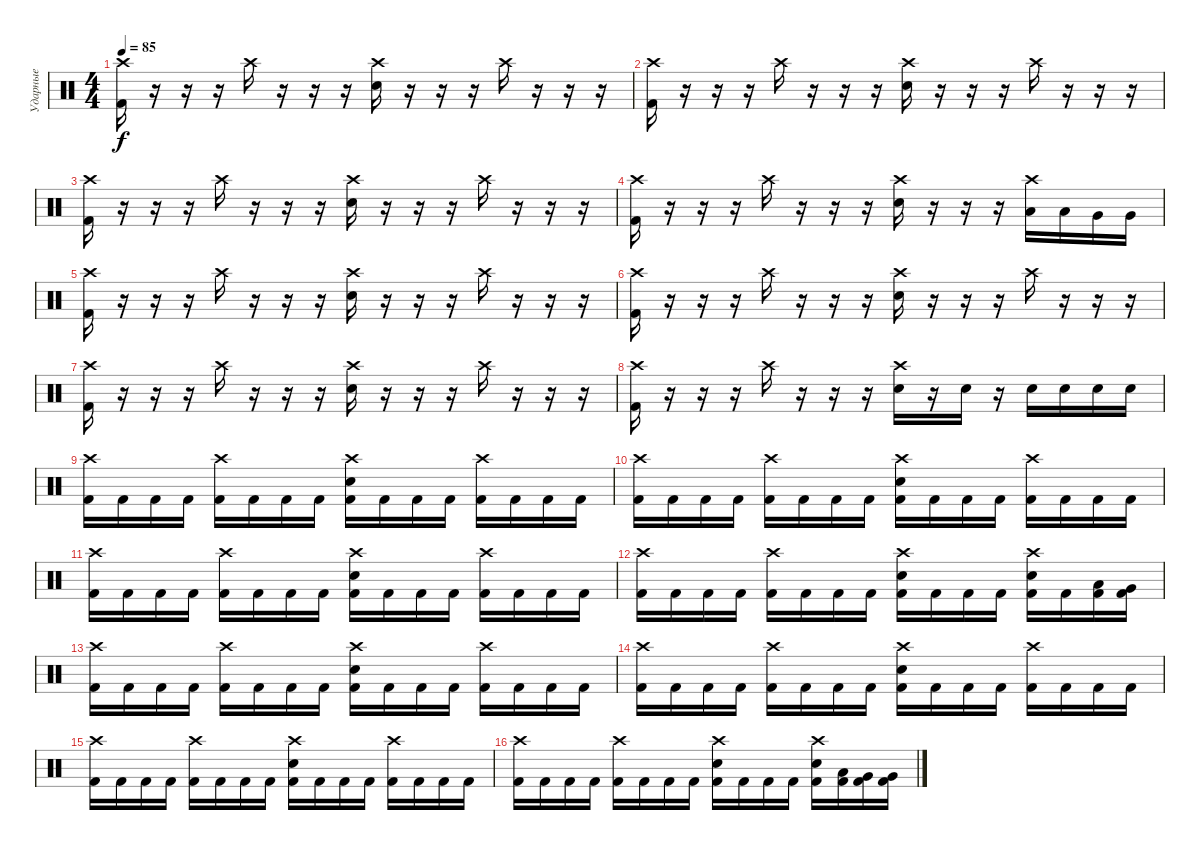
\track ("Ударные" "Ударные") {instrument percussion}
\staff {score}
\articulation defaults
\ts (4 4)
\tempo 85
\clef neutral
\ks c
("Crash high (hit)" "Kick (hit) 2").16{dy f} r.16 r.16 r.16 "Crash high (hit)".16 r.16 r.16 r.16 ("Crash high (hit)" "Electric Snare (hit)").16 r.16 r.16 r.16 "Crash high (hit)".16 r.16 r.16 r.16 |
("Crash high (hit)" "Kick (hit) 2").16 r.16 r.16 r.16 "Crash high (hit)".16 r.16 r.16 r.16 ("Crash high (hit)" "Electric Snare (hit)").16 r.16 r.16 r.16 "Crash high (hit)".16 r.16 r.16 r.16 |
("Crash high (hit)" "Kick (hit) 2").16 r.16 r.16 r.16 "Crash high (hit)".16 r.16 r.16 r.16 ("Crash high (hit)" "Electric Snare (hit)").16 r.16 r.16 r.16 "Crash high (hit)".16 r.16 r.16 r.16 |
("Crash high (hit)" "Kick (hit) 2").16 r.16 r.16 r.16 "Crash high (hit)".16 r.16 r.16 r.16 ("Crash high (hit)" "Electric Snare (hit)").16 r.16 r.16 r.16 ("Crash high (hit)" "Low Tom (hit)").16 "Low Tom (hit)".16 "Very Low Tom (hit)".16 "Very Low Tom (hit)".16 |
("Crash high (hit)" "Kick (hit) 2").16 r.16 r.16 r.16 "Crash high (hit)".16 r.16 r.16 r.16 ("Crash high (hit)" "Electric Snare (hit)").16 r.16 r.16 r.16 "Crash high (hit)".16 r.16 r.16 r.16 |
("Crash high (hit)" "Kick (hit) 2").16 r.16 r.16 r.16 "Crash high (hit)".16 r.16 r.16 r.16 ("Crash high (hit)" "Electric Snare (hit)").16 r.16 r.16 r.16 "Crash high (hit)".16 r.16 r.16 r.16 |
("Crash high (hit)" "Kick (hit) 2").16 r.16 r.16 r.16 "Crash high (hit)".16 r.16 r.16 r.16 ("Crash high (hit)" "Electric Snare (hit)").16 r.16 r.16 r.16 "Crash high (hit)".16 r.16 r.16 r.16 |
("Crash high (hit)" "Kick (hit) 2").16 r.16 r.16 r.16 "Crash high (hit)".16 r.16 r.16 r.16 ("Crash high (hit)" "Electric Snare (hit)").16 r.16 "Electric Snare (hit)".16 r.16 "Electric Snare (hit)".16 "Electric Snare (hit)".16 "Electric Snare (hit)".16 "Electric Snare (hit)".16 |
("Crash high (hit)" "Kick (hit) 2").16 "Kick (hit) 2".16 "Kick (hit) 2".16 "Kick (hit) 2".16 ("Crash high (hit)" "Kick (hit) 2").16 "Kick (hit) 2".16 "Kick (hit) 2".16 "Kick (hit) 2".16 ("Crash high (hit)" "Electric Snare (hit)" "Kick (hit) 2").16 "Kick (hit) 2".16 "Kick (hit) 2".16 "Kick (hit) 2".16 ("Crash high (hit)" "Kick (hit) 2").16 "Kick (hit) 2".16 "Kick (hit) 2".16 "Kick (hit) 2".16 |
("Crash high (hit)" "Kick (hit) 2").16 "Kick (hit) 2".16 "Kick (hit) 2".16 "Kick (hit) 2".16 ("Crash high (hit)" "Kick (hit) 2").16 "Kick (hit) 2".16 "Kick (hit) 2".16 "Kick (hit) 2".16 ("Crash high (hit)" "Electric Snare (hit)" "Kick (hit) 2").16 "Kick (hit) 2".16 "Kick (hit) 2".16 "Kick (hit) 2".16 ("Crash high (hit)" "Kick (hit) 2").16 "Kick (hit) 2".16 "Kick (hit) 2".16 "Kick (hit) 2".16 |
("Crash high (hit)" "Kick (hit) 2").16 "Kick (hit) 2".16 "Kick (hit) 2".16 "Kick (hit) 2".16 ("Crash high (hit)" "Kick (hit) 2").16 "Kick (hit) 2".16 "Kick (hit) 2".16 "Kick (hit) 2".16 ("Crash high (hit)" "Electric Snare (hit)" "Kick (hit) 2").16 "Kick (hit) 2".16 "Kick (hit) 2".16 "Kick (hit) 2".16 ("Crash high (hit)" "Kick (hit) 2").16 "Kick (hit) 2".16 "Kick (hit) 2".16 "Kick (hit) 2".16 |
("Crash high (hit)" "Kick (hit) 2").16 "Kick (hit) 2".16 "Kick (hit) 2".16 "Kick (hit) 2".16 ("Crash high (hit)" "Kick (hit) 2").16 "Kick (hit) 2".16 "Kick (hit) 2".16 "Kick (hit) 2".16 ("Crash high (hit)" "Electric Snare (hit)" "Kick (hit) 2").16 "Kick (hit) 2".16 "Kick (hit) 2".16 "Kick (hit) 2".16 ("Crash high (hit)" "Electric Snare (hit)" "Kick (hit) 2").16 "Kick (hit) 2".16 ("Low Tom (hit)" "Kick (hit) 2").16 ("Very Low Tom (hit)" "Kick (hit) 2").16 |
("Crash high (hit)" "Kick (hit) 2").16 "Kick (hit) 2".16 "Kick (hit) 2".16 "Kick (hit) 2".16 ("Crash high (hit)" "Kick (hit) 2").16 "Kick (hit) 2".16 "Kick (hit) 2".16 "Kick (hit) 2".16 ("Crash high (hit)" "Electric Snare (hit)" "Kick (hit) 2").16 "Kick (hit) 2".16 "Kick (hit) 2".16 "Kick (hit) 2".16 ("Crash high (hit)" "Kick (hit) 2").16 "Kick (hit) 2".16 "Kick (hit) 2".16 "Kick (hit) 2".16 |
("Crash high (hit)" "Kick (hit) 2").16 "Kick (hit) 2".16 "Kick (hit) 2".16 "Kick (hit) 2".16 ("Crash high (hit)" "Kick (hit) 2").16 "Kick (hit) 2".16 "Kick (hit) 2".16 "Kick (hit) 2".16 ("Crash high (hit)" "Electric Snare (hit)" "Kick (hit) 2").16 "Kick (hit) 2".16 "Kick (hit) 2".16 "Kick (hit) 2".16 ("Crash high (hit)" "Kick (hit) 2").16 "Kick (hit) 2".16 "Kick (hit) 2".16 "Kick (hit) 2".16 |
("Crash high (hit)" "Kick (hit) 2").16 "Kick (hit) 2".16 "Kick (hit) 2".16 "Kick (hit) 2".16 ("Crash high (hit)" "Kick (hit) 2").16 "Kick (hit) 2".16 "Kick (hit) 2".16 "Kick (hit) 2".16 ("Crash high (hit)" "Electric Snare (hit)" "Kick (hit) 2").16 "Kick (hit) 2".16 "Kick (hit) 2".16 "Kick (hit) 2".16 ("Crash high (hit)" "Kick (hit) 2").16 "Kick (hit) 2".16 "Kick (hit) 2".16 "Kick (hit) 2".16 |
("Crash high (hit)" "Kick (hit) 2").16 "Kick (hit) 2".16 "Kick (hit) 2".16 "Kick (hit) 2".16 ("Crash high (hit)" "Kick (hit) 2").16 "Kick (hit) 2".16 "Kick (hit) 2".16 "Kick (hit) 2".16 ("Crash high (hit)" "Electric Snare (hit)" "Kick (hit) 2").16 "Kick (hit) 2".16 "Kick (hit) 2".16 "Kick (hit) 2".16 ("Crash high (hit)" "Electric Snare (hit)" "Kick (hit) 2").16 ("Low Tom (hit)" "Kick (hit) 2").16 ("Very Low Tom (hit)" "Kick (hit) 2").16 ("Very Low Tom (hit)" "Kick (hit) 2").16
